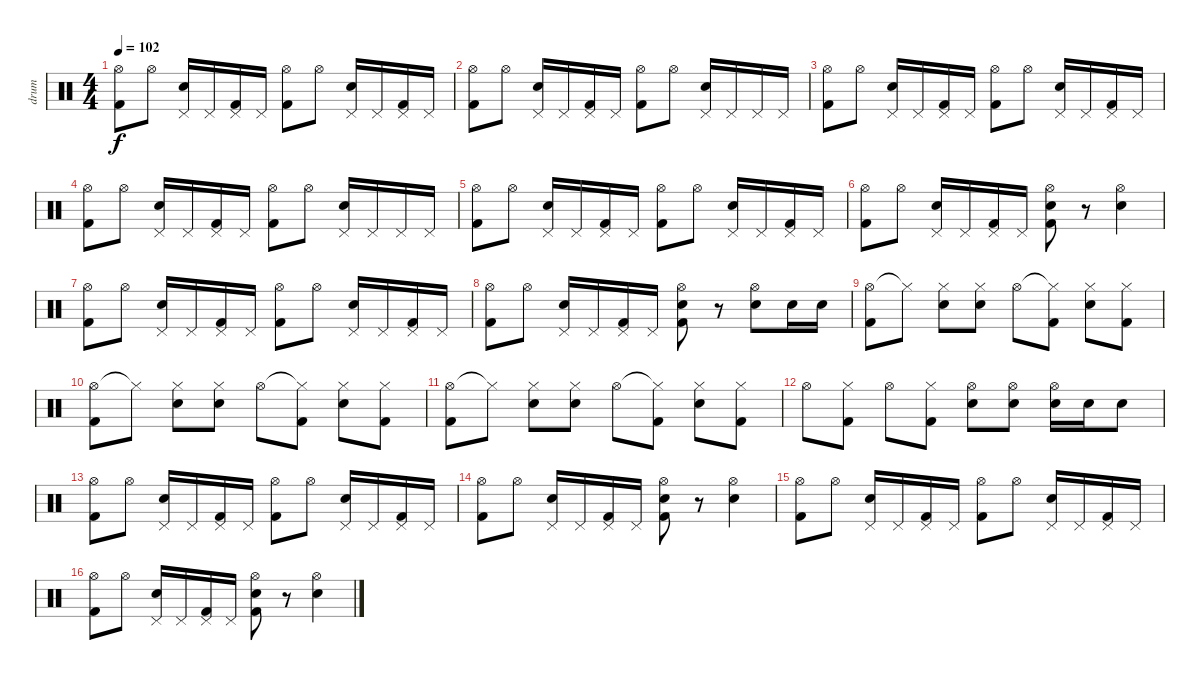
\track ("drum" "drum") {instrument percussion}
\staff {score}
\articulation defaults
\ts (4 4)
\tempo 102
\clef neutral
\ks c
("Hi-Hat (open)" "Kick (hit) 2").8{dy f} "Hi-Hat (open)".8 ("Pedal Hi-Hat (hit)" "Electric Snare (hit)").16 "Pedal Hi-Hat (hit)".16 ("Pedal Hi-Hat (hit)" "Kick (hit) 2").16 "Pedal Hi-Hat (hit)".16 ("Hi-Hat (open)" "Kick (hit) 2").8 "Hi-Hat (open)".8 ("Pedal Hi-Hat (hit)" "Electric Snare (hit)").16 "Pedal Hi-Hat (hit)".16 ("Pedal Hi-Hat (hit)" "Kick (hit) 2").16 "Pedal Hi-Hat (hit)".16 |
("Hi-Hat (open)" "Kick (hit) 2").8 "Hi-Hat (open)".8 ("Pedal Hi-Hat (hit)" "Electric Snare (hit)").16 "Pedal Hi-Hat (hit)".16 ("Pedal Hi-Hat (hit)" "Kick (hit) 2").16 "Pedal Hi-Hat (hit)".16 ("Hi-Hat (open)" "Kick (hit) 2").8 "Hi-Hat (open)".8 ("Pedal Hi-Hat (hit)" "Electric Snare (hit)").16 "Pedal Hi-Hat (hit)".16 "Pedal Hi-Hat (hit)".16 "Pedal Hi-Hat (hit)".16 |
("Hi-Hat (open)" "Kick (hit) 2").8 "Hi-Hat (open)".8 ("Pedal Hi-Hat (hit)" "Electric Snare (hit)").16 "Pedal Hi-Hat (hit)".16 ("Pedal Hi-Hat (hit)" "Kick (hit) 2").16 "Pedal Hi-Hat (hit)".16 ("Hi-Hat (open)" "Kick (hit) 2").8 "Hi-Hat (open)".8 ("Pedal Hi-Hat (hit)" "Electric Snare (hit)").16 "Pedal Hi-Hat (hit)".16 ("Pedal Hi-Hat (hit)" "Kick (hit) 2").16 "Pedal Hi-Hat (hit)".16 |
("Hi-Hat (open)" "Kick (hit) 2").8 "Hi-Hat (open)".8 ("Pedal Hi-Hat (hit)" "Electric Snare (hit)").16 "Pedal Hi-Hat (hit)".16 ("Pedal Hi-Hat (hit)" "Kick (hit) 2").16 "Pedal Hi-Hat (hit)".16 ("Hi-Hat (open)" "Kick (hit) 2").8 "Hi-Hat (open)".8 ("Pedal Hi-Hat (hit)" "Electric Snare (hit)").16 "Pedal Hi-Hat (hit)".16 "Pedal Hi-Hat (hit)".16 "Pedal Hi-Hat (hit)".16 |
("Hi-Hat (open)" "Kick (hit) 2").8 "Hi-Hat (open)".8 ("Pedal Hi-Hat (hit)" "Electric Snare (hit)").16 "Pedal Hi-Hat (hit)".16 ("Pedal Hi-Hat (hit)" "Kick (hit) 2").16 "Pedal Hi-Hat (hit)".16 ("Hi-Hat (open)" "Kick (hit) 2").8 "Hi-Hat (open)".8 ("Pedal Hi-Hat (hit)" "Electric Snare (hit)").16 "Pedal Hi-Hat (hit)".16 ("Pedal Hi-Hat (hit)" "Kick (hit) 2").16 "Pedal Hi-Hat (hit)".16 |
("Hi-Hat (open)" "Kick (hit) 2").8 "Hi-Hat (open)".8 ("Pedal Hi-Hat (hit)" "Electric Snare (hit)").16 "Pedal Hi-Hat (hit)".16 ("Pedal Hi-Hat (hit)" "Kick (hit) 2").16 "Pedal Hi-Hat (hit)".16 ("Hi-Hat (open)" "Electric Snare (hit)" "Kick (hit) 2").8 r.8 ("Hi-Hat (open)" "Electric Snare (hit)").4 |
("Hi-Hat (open)" "Kick (hit) 2").8 "Hi-Hat (open)".8 ("Pedal Hi-Hat (hit)" "Electric Snare (hit)").16 "Pedal Hi-Hat (hit)".16 ("Pedal Hi-Hat (hit)" "Kick (hit) 2").16 "Pedal Hi-Hat (hit)".16 ("Hi-Hat (open)" "Kick (hit) 2").8 "Hi-Hat (open)".8 ("Pedal Hi-Hat (hit)" "Electric Snare (hit)").16 "Pedal Hi-Hat (hit)".16 ("Pedal Hi-Hat (hit)" "Kick (hit) 2").16 "Pedal Hi-Hat (hit)".16 |
("Hi-Hat (open)" "Kick (hit) 2").8 "Hi-Hat (open)".8 ("Pedal Hi-Hat (hit)" "Electric Snare (hit)").16 "Pedal Hi-Hat (hit)".16 ("Pedal Hi-Hat (hit)" "Kick (hit) 2").16 "Pedal Hi-Hat (hit)".16 ("Hi-Hat (open)" "Electric Snare (hit)" "Kick (hit) 2").8 r.8 ("Hi-Hat (open)" "Electric Snare (hit)").8 "Electric Snare (hit)".16 "Electric Snare (hit)".16 |
("Hi-Hat (open)" "Kick (hit) 2").8 "Hi-Hat (closed)"{t}.8 ("Hi-Hat (closed)" "Electric Snare (hit)").8 ("Hi-Hat (closed)" "Electric Snare (hit)").8 "Hi-Hat (open)".8 ("Hi-Hat (closed)"{t} "Kick (hit) 2").8 ("Hi-Hat (closed)" "Electric Snare (hit)").8 ("Hi-Hat (closed)" "Kick (hit) 2").8 |
("Hi-Hat (open)" "Kick (hit) 2").8 "Hi-Hat (closed)"{t}.8 ("Hi-Hat (closed)" "Electric Snare (hit)").8 ("Hi-Hat (closed)" "Electric Snare (hit)").8 "Hi-Hat (open)".8 ("Hi-Hat (closed)"{t} "Kick (hit) 2").8 ("Hi-Hat (closed)" "Electric Snare (hit)").8 ("Hi-Hat (closed)" "Kick (hit) 2").8 |
("Hi-Hat (open)" "Kick (hit) 2").8 "Hi-Hat (closed)"{t}.8 ("Hi-Hat (closed)" "Electric Snare (hit)").8 ("Hi-Hat (closed)" "Electric Snare (hit)").8 "Hi-Hat (open)".8 ("Hi-Hat (closed)"{t} "Kick (hit) 2").8 ("Hi-Hat (closed)" "Electric Snare (hit)").8 ("Hi-Hat (closed)" "Kick (hit) 2").8 |
"Hi-Hat (open)".8 ("Hi-Hat (closed)" "Kick (hit) 2").8 "Hi-Hat (open)".8 ("Hi-Hat (closed)" "Kick (hit) 2").8 ("Hi-Hat (open)" "Electric Snare (hit)").8 ("Hi-Hat (open)" "Electric Snare (hit)").8 ("Hi-Hat (open)" "Electric Snare (hit)").16 "Electric Snare (hit)".16 "Electric Snare (hit)".8 |
("Hi-Hat (open)" "Kick (hit) 2").8 "Hi-Hat (open)".8 ("Pedal Hi-Hat (hit)" "Electric Snare (hit)").16 "Pedal Hi-Hat (hit)".16 ("Pedal Hi-Hat (hit)" "Kick (hit) 2").16 "Pedal Hi-Hat (hit)".16 ("Hi-Hat (open)" "Kick (hit) 2").8 "Hi-Hat (open)".8 ("Pedal Hi-Hat (hit)" "Electric Snare (hit)").16 "Pedal Hi-Hat (hit)".16 ("Pedal Hi-Hat (hit)" "Kick (hit) 2").16 "Pedal Hi-Hat (hit)".16 |
("Hi-Hat (open)" "Kick (hit) 2").8 "Hi-Hat (open)".8 ("Pedal Hi-Hat (hit)" "Electric Snare (hit)").16 "Pedal Hi-Hat (hit)".16 ("Pedal Hi-Hat (hit)" "Kick (hit) 2").16 "Pedal Hi-Hat (hit)".16 ("Hi-Hat (open)" "Electric Snare (hit)" "Kick (hit) 2").8 r.8 ("Hi-Hat (open)" "Electric Snare (hit)").4 |
("Hi-Hat (open)" "Kick (hit) 2").8 "Hi-Hat (open)".8 ("Pedal Hi-Hat (hit)" "Electric Snare (hit)").16 "Pedal Hi-Hat (hit)".16 ("Pedal Hi-Hat (hit)" "Kick (hit) 2").16 "Pedal Hi-Hat (hit)".16 ("Hi-Hat (open)" "Kick (hit) 2").8 "Hi-Hat (open)".8 ("Pedal Hi-Hat (hit)" "Electric Snare (hit)").16 "Pedal Hi-Hat (hit)".16 ("Pedal Hi-Hat (hit)" "Kick (hit) 2").16 "Pedal Hi-Hat (hit)".16 |
("Hi-Hat (open)" "Kick (hit) 2").8 "Hi-Hat (open)".8 ("Pedal Hi-Hat (hit)" "Electric Snare (hit)").16 "Pedal Hi-Hat (hit)".16 ("Pedal Hi-Hat (hit)" "Kick (hit) 2").16 "Pedal Hi-Hat (hit)".16 ("Hi-Hat (open)" "Electric Snare (hit)" "Kick (hit) 2").8 r.8 ("Hi-Hat (open)" "Electric Snare (hit)").4
